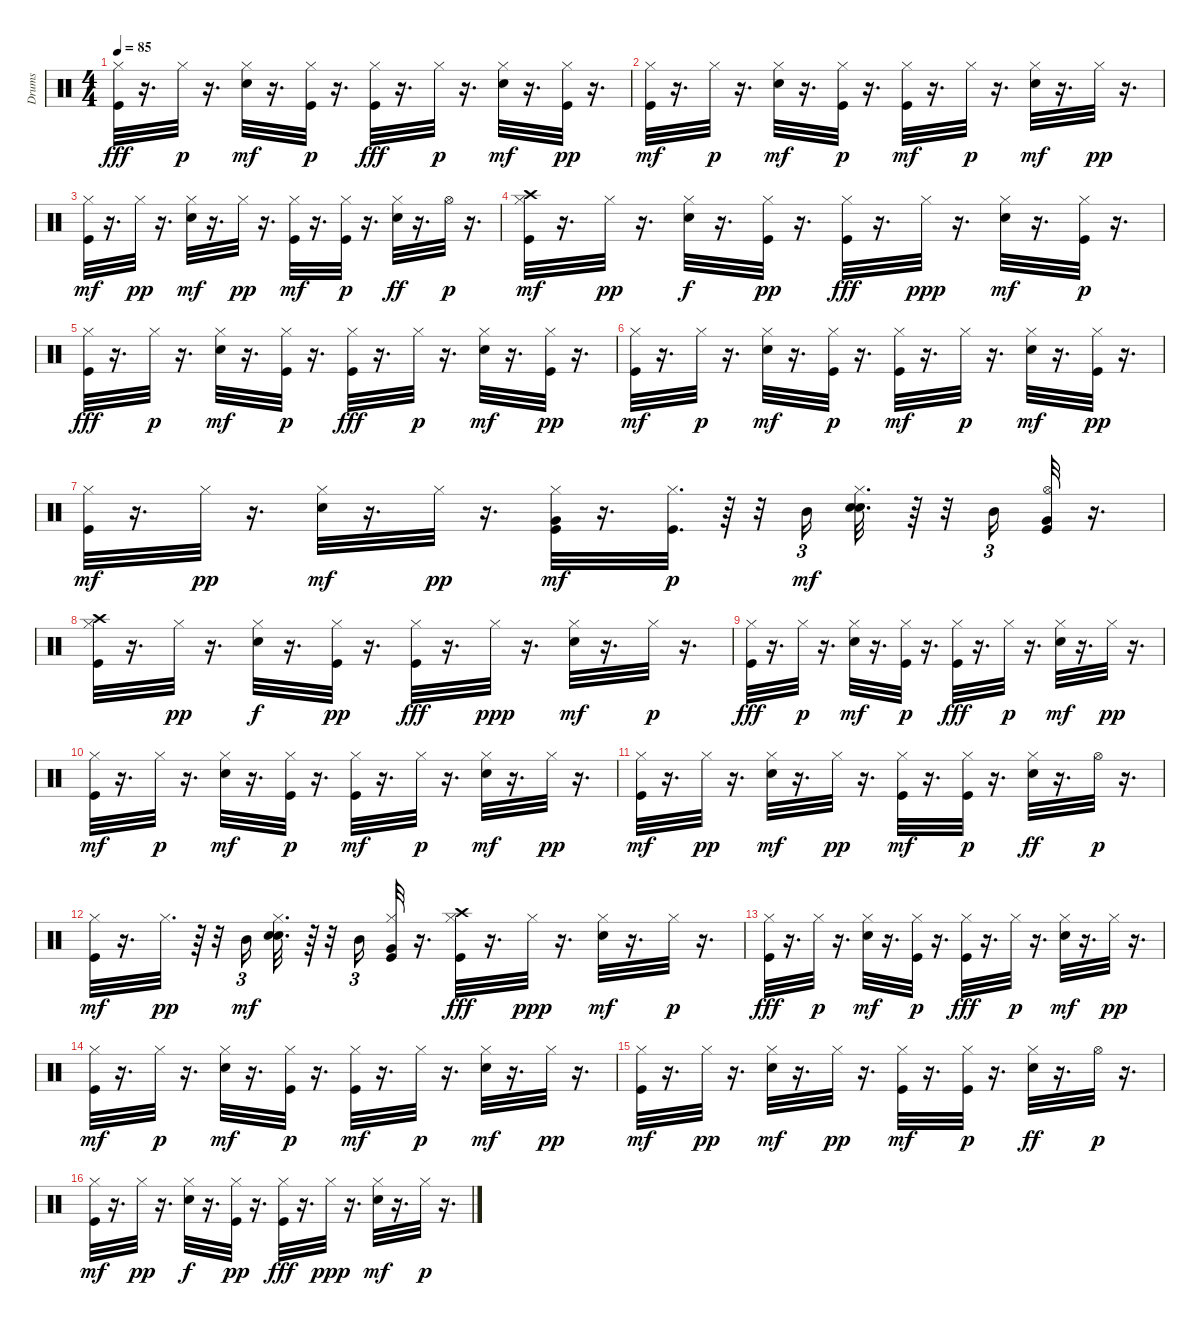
\track ("Drums" "Drums") {instrument percussion}
\staff {score}
\articulation defaults
\ts (4 4)
\tempo 85
\clef neutral
\ks c
("Kick (hit)" "Hi-Hat (closed)").32{dy fff} r.16{d} "Hi-Hat (closed)".32{dy p} r.16{d} ("Electric Snare (hit)" "Hi-Hat (closed)").32{dy mf} r.16{d} ("Kick (hit)" "Hi-Hat (closed)").32{dy p} r.16{d} ("Kick (hit)" "Hi-Hat (closed)").32{dy fff} r.16{d} "Hi-Hat (closed)".32{dy p} r.16{d} ("Electric Snare (hit)" "Hi-Hat (closed)").32{dy mf} r.16{d} ("Kick (hit)" "Hi-Hat (closed)").32{dy pp} r.16{d} |
("Kick (hit)" "Hi-Hat (closed)").32{dy mf} r.16{d} "Hi-Hat (closed)".32{dy p} r.16{d} ("Electric Snare (hit)" "Hi-Hat (closed)").32{dy mf} r.16{d} ("Kick (hit)" "Hi-Hat (closed)").32{dy p} r.16{d} ("Kick (hit)" "Hi-Hat (closed)").32{dy mf} r.16{d} "Hi-Hat (closed)".32{dy p} r.16{d} ("Electric Snare (hit)" "Hi-Hat (closed)").32{dy mf} r.16{d} "Hi-Hat (closed)".32{dy pp} r.16{d} |
("Kick (hit)" "Hi-Hat (closed)").32{dy mf} r.16{d} "Hi-Hat (closed)".32{dy pp} r.16{d} ("Electric Snare (hit)" "Hi-Hat (closed)").32{dy mf} r.16{d} "Hi-Hat (closed)".32{dy pp} r.16{d} ("Kick (hit)" "Hi-Hat (closed)").32{dy mf} r.16{d} ("Kick (hit)" "Hi-Hat (closed)").32{dy p} r.16{d} ("Electric Snare (hit)" "Hi-Hat (closed)").32{dy ff} r.16{d} "Hi-Hat (open)".32{dy p} r.16{d} |
("Kick (hit)" "Crash high (hit)" "Hi-Hat (closed)").32{dy mf} r.16{d} "Hi-Hat (closed)".32{dy pp} r.16{d} ("Electric Snare (hit)" "Hi-Hat (closed)").32{dy f} r.16{d} ("Kick (hit)" "Hi-Hat (closed)").32{dy pp} r.16{d} ("Kick (hit)" "Hi-Hat (closed)").32{dy fff} r.16{d} "Hi-Hat (closed)".32{dy ppp} r.16{d} ("Electric Snare (hit)" "Hi-Hat (closed)").32{dy mf} r.16{d} ("Kick (hit)" "Hi-Hat (closed)").32{dy p} r.16{d} |
("Kick (hit)" "Hi-Hat (closed)").32{dy fff} r.16{d} "Hi-Hat (closed)".32{dy p} r.16{d} ("Electric Snare (hit)" "Hi-Hat (closed)").32{dy mf} r.16{d} ("Kick (hit)" "Hi-Hat (closed)").32{dy p} r.16{d} ("Kick (hit)" "Hi-Hat (closed)").32{dy fff} r.16{d} "Hi-Hat (closed)".32{dy p} r.16{d} ("Electric Snare (hit)" "Hi-Hat (closed)").32{dy mf} r.16{d} ("Kick (hit)" "Hi-Hat (closed)").32{dy pp} r.16{d} |
("Kick (hit)" "Hi-Hat (closed)").32{dy mf} r.16{d} "Hi-Hat (closed)".32{dy p} r.16{d} ("Electric Snare (hit)" "Hi-Hat (closed)").32{dy mf} r.16{d} ("Kick (hit)" "Hi-Hat (closed)").32{dy p} r.16{d} ("Kick (hit)" "Hi-Hat (closed)").32{dy mf} r.16{d} "Hi-Hat (closed)".32{dy p} r.16{d} ("Electric Snare (hit)" "Hi-Hat (closed)").32{dy mf} r.16{d} ("Kick (hit)" "Hi-Hat (closed)").32{dy pp} r.16{d} |
("Kick (hit)" "Hi-Hat (closed)").32{dy mf} r.16{d} "Hi-Hat (closed)".32{dy pp} r.16{d} ("Electric Snare (hit)" "Hi-Hat (closed)").32{dy mf} r.16{d} "Hi-Hat (closed)".32{dy pp} r.16{d} ("Kick (hit)" "Hi-Hat (closed)" "Very Low Tom (hit)").32{dy mf} r.16{d} ("Kick (hit)" "Hi-Hat (closed)").32{d dy p} r.64 r.32 "Mid Tom (hit)".16{tu (3 2) dy mf} ("Electric Snare (hit)" "Hi-Hat (closed)" "Snare (hit) 2").32{d} r.64 r.32 "Mid Tom (hit)".16{tu (3 2)} ("Kick (hit)" "Hi-Hat (open)" "Very Low Tom (hit)").32 r.16{d} |
("Kick (hit)" "Crash high (hit)" "Hi-Hat (closed)").32 r.16{d} "Hi-Hat (closed)".32{dy pp} r.16{d} ("Electric Snare (hit)" "Hi-Hat (closed)").32{dy f} r.16{d} ("Kick (hit)" "Hi-Hat (closed)").32{dy pp} r.16{d} ("Kick (hit)" "Hi-Hat (closed)").32{dy fff} r.16{d} "Hi-Hat (closed)".32{dy ppp} r.16{d} ("Electric Snare (hit)" "Hi-Hat (closed)").32{dy mf} r.16{d} "Hi-Hat (closed)".32{dy p} r.16{d} |
("Kick (hit)" "Hi-Hat (closed)").32{dy fff} r.16{d} "Hi-Hat (closed)".32{dy p} r.16{d} ("Electric Snare (hit)" "Hi-Hat (closed)").32{dy mf} r.16{d} ("Kick (hit)" "Hi-Hat (closed)").32{dy p} r.16{d} ("Kick (hit)" "Hi-Hat (closed)").32{dy fff} r.16{d} "Hi-Hat (closed)".32{dy p} r.16{d} ("Electric Snare (hit)" "Hi-Hat (closed)").32{dy mf} r.16{d} "Hi-Hat (closed)".32{dy pp} r.16{d} |
("Kick (hit)" "Hi-Hat (closed)").32{dy mf} r.16{d} "Hi-Hat (closed)".32{dy p} r.16{d} ("Electric Snare (hit)" "Hi-Hat (closed)").32{dy mf} r.16{d} ("Kick (hit)" "Hi-Hat (closed)").32{dy p} r.16{d} ("Kick (hit)" "Hi-Hat (closed)").32{dy mf} r.16{d} "Hi-Hat (closed)".32{dy p} r.16{d} ("Electric Snare (hit)" "Hi-Hat (closed)").32{dy mf} r.16{d} "Hi-Hat (closed)".32{dy pp} r.16{d} |
("Kick (hit)" "Hi-Hat (closed)").32{dy mf} r.16{d} "Hi-Hat (closed)".32{dy pp} r.16{d} ("Electric Snare (hit)" "Hi-Hat (closed)").32{dy mf} r.16{d} "Hi-Hat (closed)".32{dy pp} r.16{d} ("Kick (hit)" "Hi-Hat (closed)").32{dy mf} r.16{d} ("Kick (hit)" "Hi-Hat (closed)").32{dy p} r.16{d} ("Electric Snare (hit)" "Hi-Hat (closed)").32{dy ff} r.16{d} "Hi-Hat (open)".32{dy p} r.16{d} |
("Kick (hit)" "Hi-Hat (closed)").32{dy mf} r.16{d} "Hi-Hat (closed)".32{d dy pp} r.64 r.32 "Mid Tom (hit)".16{tu (3 2) dy mf} ("Electric Snare (hit)" "Hi-Hat (closed)" "Snare (hit) 2").32{d} r.64 r.32 "Mid Tom (hit)".16{tu (3 2)} ("Kick (hit)" "Hi-Hat (closed)" "Very Low Tom (hit)").32 r.16{d} ("Kick (hit)" "Crash high (hit)" "Hi-Hat (closed)").32{dy fff} r.16{d} "Hi-Hat (closed)".32{dy ppp} r.16{d} ("Electric Snare (hit)" "Hi-Hat (closed)").32{dy mf} r.16{d} "Hi-Hat (closed)".32{dy p} r.16{d} |
("Kick (hit)" "Hi-Hat (closed)").32{dy fff} r.16{d} "Hi-Hat (closed)".32{dy p} r.16{d} ("Electric Snare (hit)" "Hi-Hat (closed)").32{dy mf} r.16{d} ("Kick (hit)" "Hi-Hat (closed)").32{dy p} r.16{d} ("Kick (hit)" "Hi-Hat (closed)").32{dy fff} r.16{d} "Hi-Hat (closed)".32{dy p} r.16{d} ("Electric Snare (hit)" "Hi-Hat (closed)").32{dy mf} r.16{d} "Hi-Hat (closed)".32{dy pp} r.16{d} |
("Kick (hit)" "Hi-Hat (closed)").32{dy mf} r.16{d} "Hi-Hat (closed)".32{dy p} r.16{d} ("Electric Snare (hit)" "Hi-Hat (closed)").32{dy mf} r.16{d} ("Kick (hit)" "Hi-Hat (closed)").32{dy p} r.16{d} ("Kick (hit)" "Hi-Hat (closed)").32{dy mf} r.16{d} "Hi-Hat (closed)".32{dy p} r.16{d} ("Electric Snare (hit)" "Hi-Hat (closed)").32{dy mf} r.16{d} "Hi-Hat (closed)".32{dy pp} r.16{d} |
("Kick (hit)" "Hi-Hat (closed)").32{dy mf} r.16{d} "Hi-Hat (closed)".32{dy pp} r.16{d} ("Electric Snare (hit)" "Hi-Hat (closed)").32{dy mf} r.16{d} "Hi-Hat (closed)".32{dy pp} r.16{d} ("Kick (hit)" "Hi-Hat (closed)").32{dy mf} r.16{d} ("Kick (hit)" "Hi-Hat (closed)").32{dy p} r.16{d} ("Electric Snare (hit)" "Hi-Hat (closed)").32{dy ff} r.16{d} "Hi-Hat (open)".32{dy p} r.16{d} |
("Kick (hit)" "Hi-Hat (closed)").32{dy mf} r.16{d} "Hi-Hat (closed)".32{dy pp} r.16{d} ("Electric Snare (hit)" "Hi-Hat (closed)").32{dy f} r.16{d} ("Kick (hit)" "Hi-Hat (closed)").32{dy pp} r.16{d} ("Kick (hit)" "Hi-Hat (closed)").32{dy fff} r.16{d} "Hi-Hat (closed)".32{dy ppp} r.16{d} ("Electric Snare (hit)" "Hi-Hat (closed)").32{dy mf} r.16{d} "Hi-Hat (closed)".32{dy p} r.16{d}
